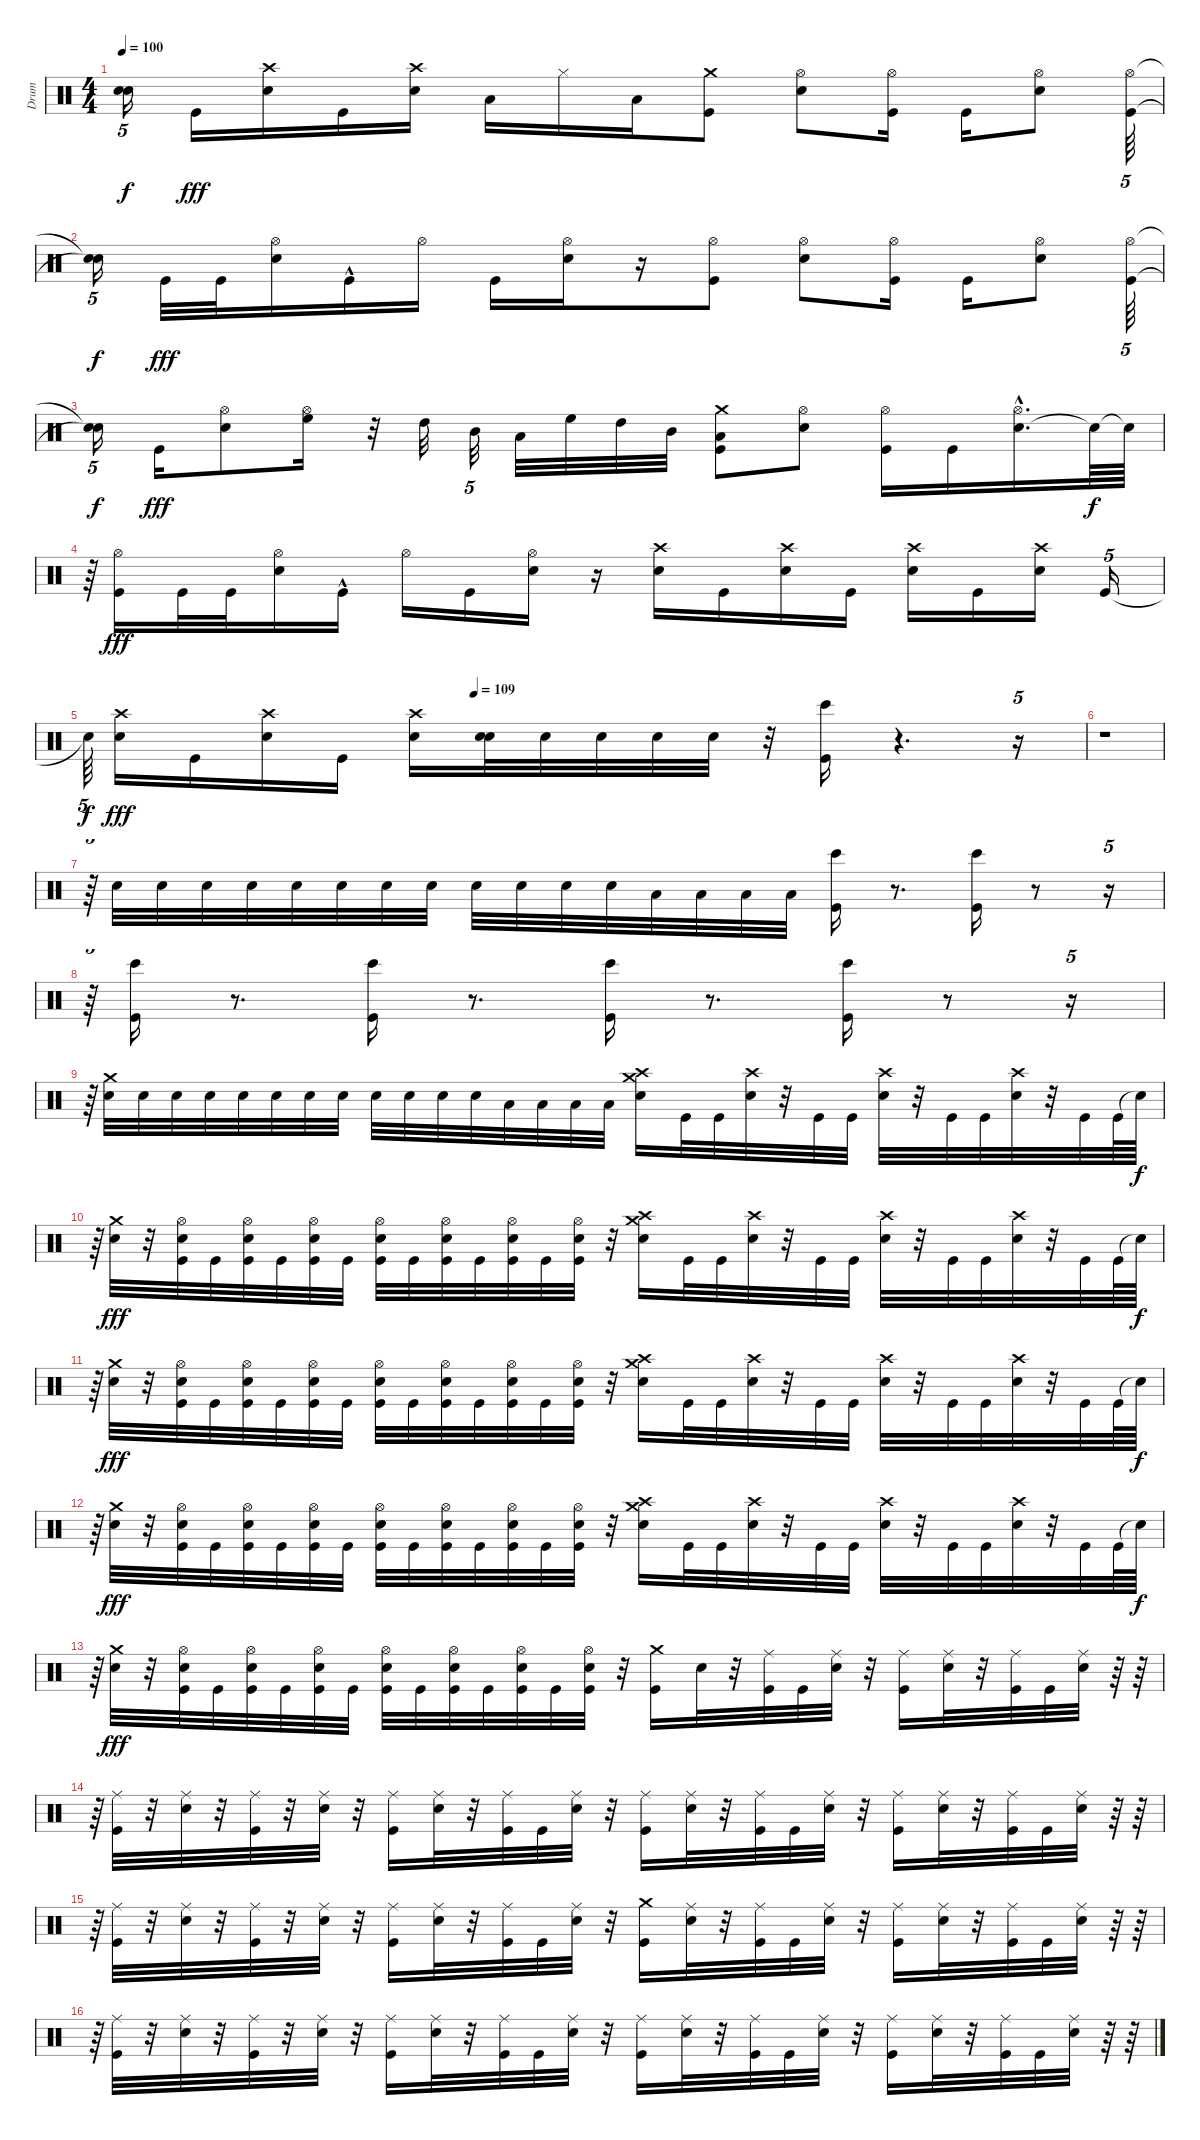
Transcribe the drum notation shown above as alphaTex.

\track ("Drum" "Drum") {instrument percussion}
\staff {score}
\articulation defaults
\ts (4 4)
\tempo 100
\clef neutral
\ks c
("Snare (hit)"{t} "Snare (hit)"{t}).16{tu (5 4) dy f} "Kick (hit)".16{dy fff} ("Crash high (hit)" "Snare (hit) 2").16 "Kick (hit)".16 ("Snare (hit) 2" "Crash high (hit)").16 "Low Tom (hit)".16 "Hi-Hat (closed)".16 "Low Floor Tom (hit)".16 ("Kick (hit)" "Crash medium (hit)").8 ("Snare (hit) 2" "Hi-Hat (open)").8 ("Kick (hit)" "Hi-Hat (open)").16 "Kick (hit)".16 ("Snare (hit) 2" "Hi-Hat (open)").8 ("Kick (hit)" "Hi-Hat (open)").64{tu (5 4)} |
("Snare (hit)"{t} "Snare (hit)"{t}).16{tu (5 4) dy f} "Kick (hit)".32{dy fff} "Kick (hit)".32 ("Snare (hit) 2" "Hi-Hat (open)").16 "Kick (hit)"{hac}.16 "Hi-Hat (open)".16 "Kick (hit)".16 ("Hi-Hat (open)" "Snare (hit) 2").16 r.16 ("Kick (hit)" "Hi-Hat (open)").8 ("Hi-Hat (open)" "Snare (hit) 2").8 ("Kick (hit)" "Hi-Hat (open)").16 "Kick (hit)".16 ("Hi-Hat (open)" "Snare (hit) 2").8 ("Kick (hit)" "Hi-Hat (open)").64{tu (5 4)} |
("Snare (hit)"{t} "Snare (hit)"{t}).16{tu (5 4) dy f} "Kick (hit)".16{dy fff} ("Hi-Hat (open)" "Snare (hit) 2").8 ("Hi-Hat (open)" "High Floor Tom (hit)").16 r.32 "High Tom (hit)".32 "Mid Tom (hit)".32{tu (5 4)} "Low Tom (hit)".32 "High Floor Tom (hit)".32 "High Tom (hit)".32 "Mid Tom (hit)".32 ("Low Tom (hit)" "Kick (hit)" "Crash medium (hit)").8 ("Snare (hit) 2" "Hi-Hat (open)").8 ("Kick (hit)" "Hi-Hat (open)").16 "Kick (hit)".16 ("Snare (hit) 2"{hac} "Hi-Hat (open)").16{d} "Snare (hit)"{t}.64{dy f} "Snare (hit)"{t}.64 |
r.64{tu (5 4)} ("Kick (hit)" "Hi-Hat (open)").16{dy fff} "Kick (hit)".32 "Kick (hit)".32 ("Snare (hit) 2" "Hi-Hat (open)").16 "Kick (hit)"{hac}.16 "Hi-Hat (open)".16 "Kick (hit)".16 ("Hi-Hat (open)" "Snare (hit) 2").16 r.16 ("Crash high (hit)" "Snare (hit) 2").16 "Kick (hit)".16 ("Snare (hit) 2" "Crash high (hit)").16 "Kick (hit)".16 ("Crash high (hit)" "Snare (hit) 2").16 "Kick (hit)".16 ("Crash high (hit)" "Snare (hit) 2").16 "Kick (hit)".16{tu (5 4)} |
\tempo (109 0.3875)
"Snare (hit)"{t}.64{tu (5 4) dy f} ("Snare (hit) 2" "Crash high (hit)").16{dy fff} "Kick (hit)".16 ("Crash high (hit)" "Snare (hit) 2").16 "Kick (hit)".16 ("Crash high (hit)" "Snare (hit) 2").16 ("Snare (hit) 2" "Snare (hit) 2").32 "Snare (hit) 2".32 "Snare (hit) 2".32 "Snare (hit) 2".32 "Snare (hit) 2".32 r.32 ("Bongo High (hit)" "Kick (hit)").16 r.4{d} r.16{tu (5 4)} |
r.1 |
r.64{tu (5 4)} "Snare (hit) 2".32 "Snare (hit) 2".32 "Snare (hit) 2".32 "Snare (hit) 2".32 "Snare (hit) 2".32 "Snare (hit) 2".32 "Snare (hit) 2".32 "Snare (hit) 2".32 "Snare (hit) 2".32 "Snare (hit) 2".32 "Snare (hit) 2".32 "Snare (hit) 2".32 "Low Tom (hit)".32 "Low Tom (hit)".32 "Low Tom (hit)".32 "Low Tom (hit)".32 ("Kick (hit)" "Bongo High (hit)").16 r.8{d} ("Kick (hit)" "Bongo High (hit)").16 r.8 r.16{tu (5 4)} |
r.64{tu (5 4)} ("Kick (hit)" "Bongo High (hit)").16 r.8{d} ("Kick (hit)" "Bongo High (hit)").16 r.8{d} ("Kick (hit)" "Bongo High (hit)").16 r.8{d} ("Kick (hit)" "Bongo High (hit)").16 r.8 r.16{tu (5 4)} |
r.64{tu (5 4)} ("Crash medium (hit)" "Snare (hit) 2").32 "Snare (hit) 2".32 "Snare (hit) 2".32 "Snare (hit) 2".32 "Snare (hit) 2".32 "Snare (hit) 2".32 "Snare (hit) 2".32 "Snare (hit) 2".32 "Snare (hit) 2".32 "Snare (hit) 2".32 "Snare (hit) 2".32 "Snare (hit) 2".32 "Low Tom (hit)".32 "Low Tom (hit)".32 "Low Tom (hit)".32 "Low Tom (hit)".32 ("Crash medium (hit)" "Crash high (hit)" "Snare (hit) 2").16 "Kick (hit)".32 "Kick (hit)".32 ("Crash high (hit)" "Snare (hit) 2").32 r.32 "Kick (hit)".32 "Kick (hit)".32 ("Crash high (hit)" "Snare (hit) 2").32 r.32 "Kick (hit)".32 "Kick (hit)".32 ("Crash high (hit)" "Snare (hit) 2").32 r.32 "Kick (hit)".32 "Kick (hit)".64 "Snare (hit)"{t}.64{dy f} |
r.64{tu (5 4)} ("Crash medium (hit)" "Snare (hit) 2").32{dy fff} r.32 ("Kick (hit)" "Snare (hit) 2" "Hi-Hat (open)").32 "Kick (hit)".32 ("Kick (hit)" "Hi-Hat (open)" "Snare (hit) 2").32 "Kick (hit)".32 ("Kick (hit)" "Snare (hit) 2" "Hi-Hat (open)").32 "Kick (hit)".32 ("Kick (hit)" "Hi-Hat (open)" "Snare (hit) 2").32 "Kick (hit)".32 ("Kick (hit)" "Hi-Hat (open)" "Snare (hit) 2").32 "Kick (hit)".32 ("Kick (hit)" "Snare (hit) 2" "Hi-Hat (open)").32 "Kick (hit)".32 ("Kick (hit)" "Snare (hit) 2" "Hi-Hat (open)").32 r.32 ("Crash medium (hit)" "Crash high (hit)" "Snare (hit) 2").16 "Kick (hit)".32 "Kick (hit)".32 ("Crash high (hit)" "Snare (hit) 2").32 r.32 "Kick (hit)".32 "Kick (hit)".32 ("Crash high (hit)" "Snare (hit) 2").32 r.32 "Kick (hit)".32 "Kick (hit)".32 ("Crash high (hit)" "Snare (hit) 2").32 r.32 "Kick (hit)".32 "Kick (hit)".64 "Snare (hit)"{t}.64{dy f} |
r.64{tu (5 4)} ("Crash medium (hit)" "Snare (hit) 2").32{dy fff} r.32 ("Kick (hit)" "Snare (hit) 2" "Hi-Hat (open)").32 "Kick (hit)".32 ("Kick (hit)" "Hi-Hat (open)" "Snare (hit) 2").32 "Kick (hit)".32 ("Kick (hit)" "Hi-Hat (open)" "Snare (hit) 2").32 "Kick (hit)".32 ("Kick (hit)" "Hi-Hat (open)" "Snare (hit) 2").32 "Kick (hit)".32 ("Kick (hit)" "Snare (hit) 2" "Hi-Hat (open)").32 "Kick (hit)".32 ("Kick (hit)" "Hi-Hat (open)" "Snare (hit) 2").32 "Kick (hit)".32 ("Kick (hit)" "Hi-Hat (open)" "Snare (hit) 2").32 r.32 ("Crash high (hit)" "Crash medium (hit)" "Snare (hit) 2").16 "Kick (hit)".32 "Kick (hit)".32 ("Crash high (hit)" "Snare (hit) 2").32 r.32 "Kick (hit)".32 "Kick (hit)".32 ("Crash high (hit)" "Snare (hit) 2").32 r.32 "Kick (hit)".32 "Kick (hit)".32 ("Crash high (hit)" "Snare (hit) 2").32 r.32 "Kick (hit)".32 "Kick (hit)".64 "Snare (hit)"{t}.64{dy f} |
r.64{tu (5 4)} ("Crash medium (hit)" "Snare (hit) 2").32{dy fff} r.32 ("Kick (hit)" "Snare (hit) 2" "Hi-Hat (open)").32 "Kick (hit)".32 ("Kick (hit)" "Snare (hit) 2" "Hi-Hat (open)").32 "Kick (hit)".32 ("Kick (hit)" "Snare (hit) 2" "Hi-Hat (open)").32 "Kick (hit)".32 ("Kick (hit)" "Snare (hit) 2" "Hi-Hat (open)").32 "Kick (hit)".32 ("Kick (hit)" "Snare (hit) 2" "Hi-Hat (open)").32 "Kick (hit)".32 ("Kick (hit)" "Snare (hit) 2" "Hi-Hat (open)").32 "Kick (hit)".32 ("Kick (hit)" "Snare (hit) 2" "Hi-Hat (open)").32 r.32 ("Crash medium (hit)" "Crash high (hit)" "Snare (hit) 2").16 "Kick (hit)".32 "Kick (hit)".32 ("Crash high (hit)" "Snare (hit) 2").32 r.32 "Kick (hit)".32 "Kick (hit)".32 ("Crash high (hit)" "Snare (hit) 2").32 r.32 "Kick (hit)".32 "Kick (hit)".32 ("Crash high (hit)" "Snare (hit) 2").32 r.32 "Kick (hit)".32 "Kick (hit)".64 "Snare (hit)"{t}.64{dy f} |
r.64{tu (5 4)} ("Crash medium (hit)" "Snare (hit) 2").32{dy fff} r.32 ("Kick (hit)" "Snare (hit) 2" "Hi-Hat (open)").32 "Kick (hit)".32 ("Kick (hit)" "Hi-Hat (open)" "Snare (hit) 2").32 "Kick (hit)".32 ("Kick (hit)" "Hi-Hat (open)" "Snare (hit) 2").32 "Kick (hit)".32 ("Kick (hit)" "Snare (hit) 2" "Hi-Hat (open)").32 "Kick (hit)".32 ("Kick (hit)" "Hi-Hat (open)" "Snare (hit) 2").32 "Kick (hit)".32 ("Kick (hit)" "Hi-Hat (open)" "Snare (hit) 2").32 "Kick (hit)".32 ("Kick (hit)" "Hi-Hat (open)" "Snare (hit) 2").32 r.32 ("Kick (hit)" "Crash medium (hit)").16 "Snare (hit) 2".32 r.32 ("Ride (middle)" "Kick (hit)").32 "Kick (hit)".32 ("Ride (middle)" "Snare (hit) 2").32 r.32 ("Kick (hit)" "Ride (middle)").16 ("Ride (middle)" "Snare (hit) 2").32 r.32 ("Kick (hit)" "Ride (middle)").32 "Kick (hit)".32 ("Ride (middle)" "Snare (hit) 2").32 r.64 r.64 |
r.64{tu (5 4)} ("Kick (hit)" "Ride (middle)").32 r.32 ("Ride (middle)" "Snare (hit) 2").32 r.32 ("Kick (hit)" "Ride (middle)").32 r.32 ("Ride (middle)" "Snare (hit) 2").32 r.32 ("Ride (middle)" "Kick (hit)").16 ("Ride (middle)" "Snare (hit) 2").32 r.32 ("Ride (middle)" "Kick (hit)").32 "Kick (hit)".32 ("Ride (middle)" "Snare (hit) 2").32 r.32 ("Ride (middle)" "Kick (hit)").16 ("Ride (middle)" "Snare (hit) 2").32 r.32 ("Ride (middle)" "Kick (hit)").32 "Kick (hit)".32 ("Ride (middle)" "Snare (hit) 2").32 r.32 ("Ride (middle)" "Kick (hit)").16 ("Ride (middle)" "Snare (hit) 2").32 r.32 ("Kick (hit)" "Ride (middle)").32 "Kick (hit)".32 ("Ride (middle)" "Snare (hit) 2").32 r.64 r.64 |
r.64{tu (5 4)} ("Ride (middle)" "Kick (hit)").32 r.32 ("Ride (middle)" "Snare (hit) 2").32 r.32 ("Ride (middle)" "Kick (hit)").32 r.32 ("Ride (middle)" "Snare (hit) 2").32 r.32 ("Kick (hit)" "Ride (middle)").16 ("Ride (middle)" "Snare (hit) 2").32 r.32 ("Ride (middle)" "Kick (hit)").32 "Kick (hit)".32 ("Ride (middle)" "Snare (hit) 2").32 r.32 ("Kick (hit)" "Crash medium (hit)").16 ("Ride (middle)" "Snare (hit) 2").32 r.32 ("Kick (hit)" "Ride (middle)").32 "Kick (hit)".32 ("Ride (middle)" "Snare (hit) 2").32 r.32 ("Kick (hit)" "Ride (middle)").16 ("Ride (middle)" "Snare (hit) 2").32 r.32 ("Kick (hit)" "Ride (middle)").32 "Kick (hit)".32 ("Ride (middle)" "Snare (hit) 2").32 r.64 r.64 |
r.64{tu (5 4)} ("Ride (middle)" "Kick (hit)").32 r.32 ("Ride (middle)" "Snare (hit) 2").32 r.32 ("Ride (middle)" "Kick (hit)").32 r.32 ("Ride (middle)" "Snare (hit) 2").32 r.32 ("Kick (hit)" "Ride (middle)").16 ("Ride (middle)" "Snare (hit) 2").32 r.32 ("Kick (hit)" "Ride (middle)").32 "Kick (hit)".32 ("Ride (middle)" "Snare (hit) 2").32 r.32 ("Kick (hit)" "Ride (middle)").16 ("Ride (middle)" "Snare (hit) 2").32 r.32 ("Kick (hit)" "Ride (middle)").32 "Kick (hit)".32 ("Ride (middle)" "Snare (hit) 2").32 r.32 ("Kick (hit)" "Ride (middle)").16 ("Ride (middle)" "Snare (hit) 2").32 r.32 ("Kick (hit)" "Ride (middle)").32 "Kick (hit)".32 ("Ride (middle)" "Snare (hit) 2").32 r.64 r.64
